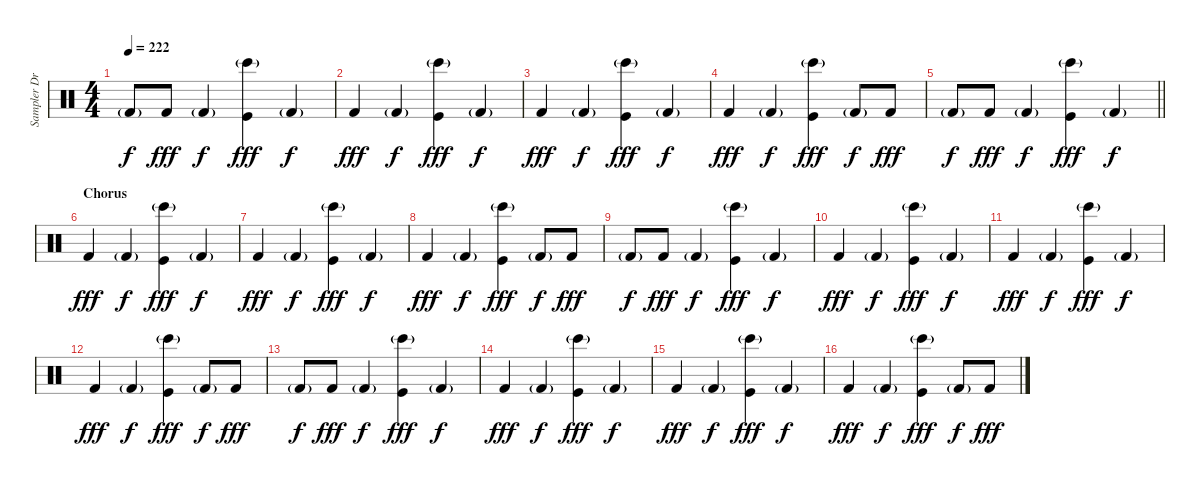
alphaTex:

\track ("Sampler Drums 2" "Sampler Dr") {instrument percussion}
\staff {score}
\articulation defaults
\ts (4 4)
\tempo 222
\clef neutral
\ks c "Kick (hit) 2"{g}.8{dy f} "Kick (hit) 2".8{dy fff} "Kick (hit) 2"{g}.4{dy f}
("Kick (hit)" "Bongo High (hit)"{g}).4{dy fff} "Kick (hit) 2"{g}.4{dy f} |
"Kick (hit) 2".4{dy fff volume 10} "Kick (hit) 2"{g}.4{dy f} ("Kick (hit)" "Bongo High (hit)"{g}).4{dy fff} "Kick (hit) 2"{g}.4{dy f} |
"Kick (hit) 2".4{dy fff} "Kick (hit) 2"{g}.4{dy f} ("Kick (hit)" "Bongo High (hit)"{g}).4{dy fff} "Kick (hit) 2"{g}.4{dy f} |
"Kick (hit) 2".4{dy fff} "Kick (hit) 2"{g}.4{dy f} ("Kick (hit)" "Bongo High (hit)"{g}).4{dy fff} "Kick (hit) 2"{g}.8{dy f} "Kick (hit) 2".8{dy fff} |
\barLineRight lightlight "Kick (hit) 2"{g}.8{dy f} "Kick (hit) 2".8{dy fff} "Kick (hit) 2"{g}.4{dy f}
("Kick (hit)" "Bongo High (hit)"{g}).4{dy fff} "Kick (hit) 2"{g}.4{dy f} |
\section ("" "Chorus")
"Kick (hit) 2".4{dy fff volume 10} "Kick (hit) 2"{g}.4{dy f} ("Kick (hit)" "Bongo High (hit)"{g}).4{dy fff} "Kick (hit) 2"{g}.4{dy f} |
"Kick (hit) 2".4{dy fff} "Kick (hit) 2"{g}.4{dy f} ("Kick (hit)" "Bongo High (hit)"{g}).4{dy fff} "Kick (hit) 2"{g}.4{dy f} |
"Kick (hit) 2".4{dy fff} "Kick (hit) 2"{g}.4{dy f} ("Kick (hit)" "Bongo High (hit)"{g}).4{dy fff} "Kick (hit) 2"{g}.8{dy f} "Kick (hit) 2".8{dy fff} |
"Kick (hit) 2"{g}.8{dy f} "Kick (hit) 2".8{dy fff} "Kick (hit) 2"{g}.4{dy f} ("Kick (hit)" "Bongo High (hit)"{g}).4{dy fff} "Kick (hit) 2"{g}.4{dy f} |
"Kick (hit) 2".4{dy fff volume 10} "Kick (hit) 2"{g}.4{dy f} ("Kick (hit)" "Bongo High (hit)"{g}).4{dy fff} "Kick (hit) 2"{g}.4{dy f} |
"Kick (hit) 2".4{dy fff} "Kick (hit) 2"{g}.4{dy f} ("Kick (hit)" "Bongo High (hit)"{g}).4{dy fff} "Kick (hit) 2"{g}.4{dy f} |
"Kick (hit) 2".4{dy fff} "Kick (hit) 2"{g}.4{dy f} ("Kick (hit)" "Bongo High (hit)"{g}).4{dy fff} "Kick (hit) 2"{g}.8{dy f} "Kick (hit) 2".8{dy fff} |
"Kick (hit) 2"{g}.8{dy f} "Kick (hit) 2".8{dy fff} "Kick (hit) 2"{g}.4{dy f} ("Kick (hit)" "Bongo High (hit)"{g}).4{dy fff} "Kick (hit) 2"{g}.4{dy f} |
"Kick (hit) 2".4{dy fff volume 10} "Kick (hit) 2"{g}.4{dy f} ("Kick (hit)" "Bongo High (hit)"{g}).4{dy fff} "Kick (hit) 2"{g}.4{dy f} |
"Kick (hit) 2".4{dy fff} "Kick (hit) 2"{g}.4{dy f} ("Kick (hit)" "Bongo High (hit)"{g}).4{dy fff} "Kick (hit) 2"{g}.4{dy f} |
"Kick (hit) 2".4{dy fff} "Kick (hit) 2"{g}.4{dy f} ("Kick (hit)" "Bongo High (hit)"{g}).4{dy fff} "Kick (hit) 2"{g}.8{dy f} "Kick (hit) 2".8{dy fff}
